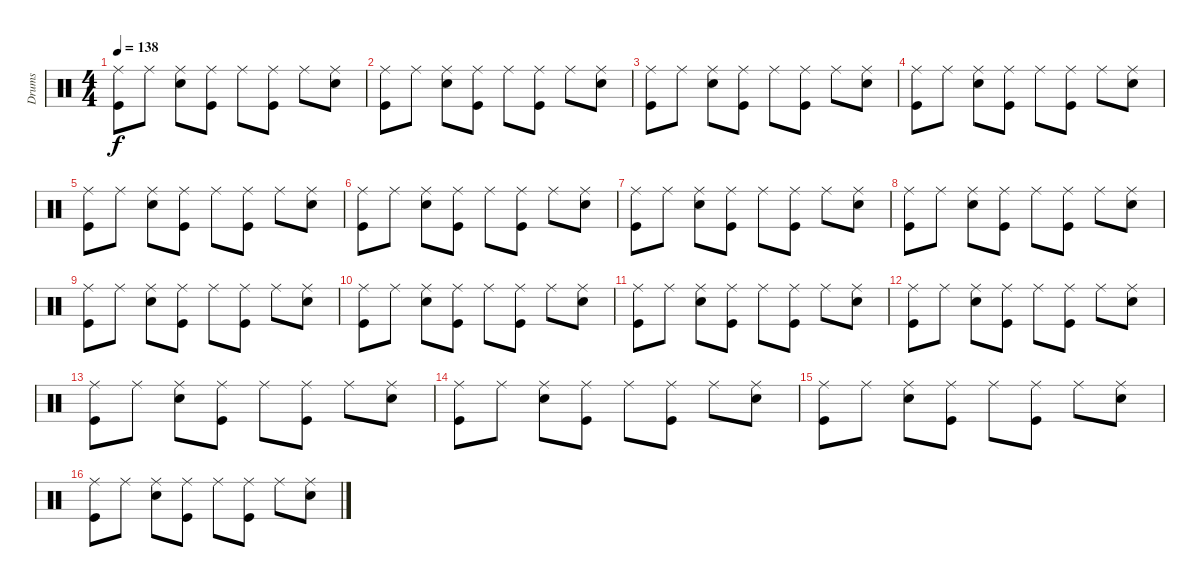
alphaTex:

\track ("Drums" "Drums") {instrument percussion}
\staff {score}
\articulation defaults
\ts (4 4)
\tempo 138
\clef neutral
\ks c
("Ride (middle)" "Kick (hit)").8{dy f} "Ride (middle)".8 ("Ride (middle)" "Snare (hit) 2").8 ("Ride (middle)" "Kick (hit)").8 "Ride (middle)".8 ("Ride (middle)" "Kick (hit)").8 "Ride (middle)".8 ("Ride (middle)" "Snare (hit) 2").8 |
("Ride (middle)" "Kick (hit)").8 "Ride (middle)".8 ("Ride (middle)" "Snare (hit) 2").8 ("Ride (middle)" "Kick (hit)").8 "Ride (middle)".8 ("Ride (middle)" "Kick (hit)").8 "Ride (middle)".8 ("Ride (middle)" "Snare (hit) 2").8 |
("Ride (middle)" "Kick (hit)").8 "Ride (middle)".8 ("Ride (middle)" "Snare (hit) 2").8 ("Ride (middle)" "Kick (hit)").8 "Ride (middle)".8 ("Ride (middle)" "Kick (hit)").8 "Ride (middle)".8 ("Ride (middle)" "Snare (hit) 2").8 |
("Ride (middle)" "Kick (hit)").8 "Ride (middle)".8 ("Ride (middle)" "Snare (hit) 2").8 ("Ride (middle)" "Kick (hit)").8 "Ride (middle)".8 ("Ride (middle)" "Kick (hit)").8 "Ride (middle)".8 ("Ride (middle)" "Snare (hit) 2").8 |
("Ride (middle)" "Kick (hit)").8 "Ride (middle)".8 ("Ride (middle)" "Snare (hit) 2").8 ("Ride (middle)" "Kick (hit)").8 "Ride (middle)".8 ("Ride (middle)" "Kick (hit)").8 "Ride (middle)".8 ("Ride (middle)" "Snare (hit) 2").8 |
("Ride (middle)" "Kick (hit)").8 "Ride (middle)".8 ("Ride (middle)" "Snare (hit) 2").8 ("Ride (middle)" "Kick (hit)").8 "Ride (middle)".8 ("Ride (middle)" "Kick (hit)").8 "Ride (middle)".8 ("Ride (middle)" "Snare (hit) 2").8 |
("Ride (middle)" "Kick (hit)").8 "Ride (middle)".8 ("Ride (middle)" "Snare (hit) 2").8 ("Ride (middle)" "Kick (hit)").8 "Ride (middle)".8 ("Ride (middle)" "Kick (hit)").8 "Ride (middle)".8 ("Ride (middle)" "Snare (hit) 2").8 |
("Ride (middle)" "Kick (hit)").8 "Ride (middle)".8 ("Ride (middle)" "Snare (hit) 2").8 ("Ride (middle)" "Kick (hit)").8 "Ride (middle)".8 ("Ride (middle)" "Kick (hit)").8 "Ride (middle)".8 ("Ride (middle)" "Snare (hit) 2").8 |
("Ride (middle)" "Kick (hit)").8 "Ride (middle)".8 ("Ride (middle)" "Snare (hit) 2").8 ("Ride (middle)" "Kick (hit)").8 "Ride (middle)".8 ("Ride (middle)" "Kick (hit)").8 "Ride (middle)".8 ("Ride (middle)" "Snare (hit) 2").8 |
("Ride (middle)" "Kick (hit)").8 "Ride (middle)".8 ("Ride (middle)" "Snare (hit) 2").8 ("Ride (middle)" "Kick (hit)").8 "Ride (middle)".8 ("Ride (middle)" "Kick (hit)").8 "Ride (middle)".8 ("Ride (middle)" "Snare (hit) 2").8 |
("Ride (middle)" "Kick (hit)").8 "Ride (middle)".8 ("Ride (middle)" "Snare (hit) 2").8 ("Ride (middle)" "Kick (hit)").8 "Ride (middle)".8 ("Ride (middle)" "Kick (hit)").8 "Ride (middle)".8 ("Ride (middle)" "Snare (hit) 2").8 |
("Ride (middle)" "Kick (hit)").8 "Ride (middle)".8 ("Ride (middle)" "Snare (hit) 2").8 ("Ride (middle)" "Kick (hit)").8 "Ride (middle)".8 ("Ride (middle)" "Kick (hit)").8 "Ride (middle)".8 ("Ride (middle)" "Snare (hit) 2").8 |
("Ride (middle)" "Kick (hit)").8 "Ride (middle)".8 ("Ride (middle)" "Snare (hit) 2").8 ("Ride (middle)" "Kick (hit)").8 "Ride (middle)".8 ("Ride (middle)" "Kick (hit)").8 "Ride (middle)".8 ("Ride (middle)" "Snare (hit) 2").8 |
("Ride (middle)" "Kick (hit)").8 "Ride (middle)".8 ("Ride (middle)" "Snare (hit) 2").8 ("Ride (middle)" "Kick (hit)").8 "Ride (middle)".8 ("Ride (middle)" "Kick (hit)").8 "Ride (middle)".8 ("Ride (middle)" "Snare (hit) 2").8 |
("Ride (middle)" "Kick (hit)").8 "Ride (middle)".8 ("Ride (middle)" "Snare (hit) 2").8 ("Ride (middle)" "Kick (hit)").8 "Ride (middle)".8 ("Ride (middle)" "Kick (hit)").8 "Ride (middle)".8 ("Ride (middle)" "Snare (hit) 2").8 |
("Ride (middle)" "Kick (hit)").8 "Ride (middle)".8 ("Ride (middle)" "Snare (hit) 2").8 ("Ride (middle)" "Kick (hit)").8 "Ride (middle)".8 ("Ride (middle)" "Kick (hit)").8 "Ride (middle)".8 ("Ride (middle)" "Snare (hit) 2").8
